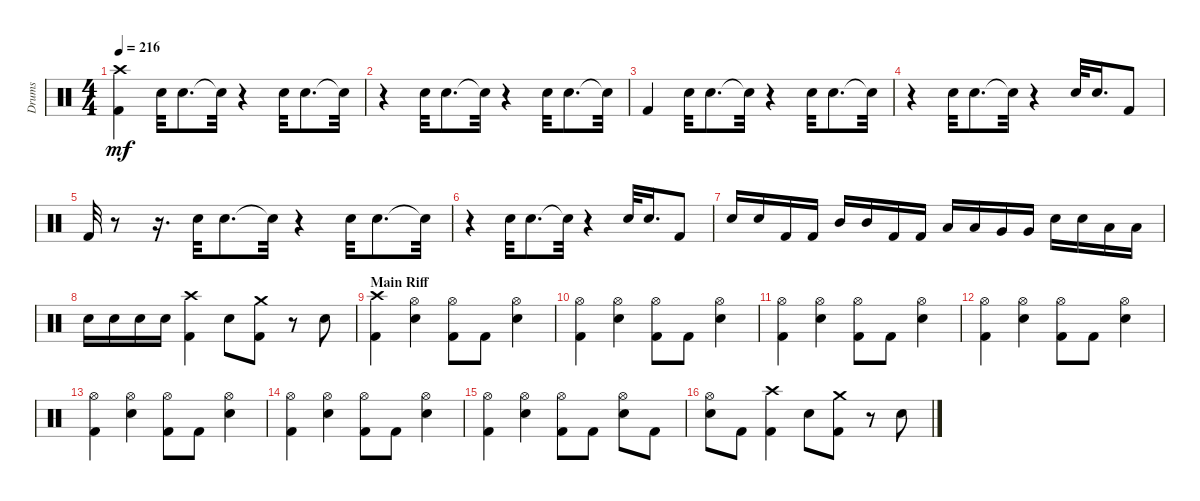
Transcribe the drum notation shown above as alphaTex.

\track ("Drums" "Drums") {instrument percussion}
\staff {score}
\articulation defaults
\ts (4 4)
\tempo 216
\clef neutral
\ks aminor
("Crash high (hit)" "Kick (hit) 2").4{dy mf} "Snare (hit) 2".32 "Snare (hit) 2".8{d} "Snare (hit) 2"{t}.32 r.4 "Snare (hit) 2".32 "Snare (hit) 2".8{d} "Snare (hit) 2"{t}.32 |
r.4 "Snare (hit) 2".32 "Snare (hit) 2".8{d} "Snare (hit) 2"{t}.32 r.4 "Snare (hit) 2".32 "Snare (hit) 2".8{d} "Snare (hit) 2"{t}.32 |
"Kick (hit) 2".4 "Snare (hit) 2".32 "Snare (hit) 2".8{d} "Snare (hit) 2"{t}.32 r.4 "Snare (hit) 2".32 "Snare (hit) 2".8{d} "Snare (hit) 2"{t}.32 |
r.4 "Snare (hit) 2".32 "Snare (hit) 2".8{d} "Snare (hit) 2"{t}.32 r.4 "Snare (hit) 2".32 "Snare (hit) 2".16{d} "Kick (hit) 2".8 |
"Kick (hit) 2".32 r.8 r.16{d} "Snare (hit) 2".32 "Snare (hit) 2".8{d} "Snare (hit) 2"{t}.32 r.4 "Snare (hit) 2".32 "Snare (hit) 2".8{d} "Snare (hit) 2"{t}.32 |
r.4 "Snare (hit) 2".32 "Snare (hit) 2".8{d} "Snare (hit) 2"{t}.32 r.4 "Snare (hit) 2".32 "Snare (hit) 2".16{d} "Kick (hit) 2".8 |
"Snare (hit) 2".16 "Snare (hit) 2".16 "Kick (hit) 2".16 "Kick (hit) 2".16 "Mid Tom (hit)".16 "Mid Tom (hit)".16 "Kick (hit) 2".16 "Kick (hit) 2".16 "Low Tom (hit)".16 "Low Tom (hit)".16 "Very Low Tom (hit)".16 "Very Low Tom (hit)".16 "Snare (hit) 2".16 "Snare (hit) 2".16 "Low Floor Tom (hit)".16 "Low Floor Tom (hit)".16 |
"Snare (hit) 2".16 "Snare (hit) 2".16 "Snare (hit) 2".16 "Snare (hit) 2".16 ("Kick (hit) 2" "Crash high (hit)").4 "Snare (hit) 2".8 ("Crash medium (hit)" "Kick (hit) 2").8 r.8 "Snare (hit) 2".8 |
\section ("" "Main Riff")
("Crash high (hit)" "Kick (hit) 2").4 ("Snare (hit) 2" "Hi-Hat (open)").4 ("Kick (hit) 2" "Hi-Hat (open)").8 "Kick (hit) 2".8 ("Hi-Hat (open)" "Snare (hit) 2").4 |
("Kick (hit) 2" "Hi-Hat (open)").4 ("Hi-Hat (open)" "Snare (hit) 2").4 ("Hi-Hat (open)" "Kick (hit) 2").8 "Kick (hit) 2".8 ("Snare (hit) 2" "Hi-Hat (open)").4 |
("Hi-Hat (open)" "Kick (hit) 2").4 ("Hi-Hat (open)" "Snare (hit) 2").4 ("Hi-Hat (open)" "Kick (hit) 2").8 "Kick (hit) 2".8 ("Hi-Hat (open)" "Snare (hit) 2").4 |
("Hi-Hat (open)" "Kick (hit) 2").4 ("Hi-Hat (open)" "Snare (hit) 2").4 ("Kick (hit) 2" "Hi-Hat (open)").8 "Kick (hit) 2".8 ("Snare (hit) 2" "Hi-Hat (open)").4 |
("Hi-Hat (open)" "Kick (hit) 2").4 ("Hi-Hat (open)" "Snare (hit) 2").4 ("Kick (hit) 2" "Hi-Hat (open)").8 "Kick (hit) 2".8 ("Snare (hit) 2" "Hi-Hat (open)").4 |
("Kick (hit) 2" "Hi-Hat (open)").4 ("Hi-Hat (open)" "Snare (hit) 2").4 ("Hi-Hat (open)" "Kick (hit) 2").8 "Kick (hit) 2".8 ("Snare (hit) 2" "Hi-Hat (open)").4 |
("Kick (hit) 2" "Hi-Hat (open)").4 ("Hi-Hat (open)" "Snare (hit) 2").4 ("Hi-Hat (open)" "Kick (hit) 2").8 "Kick (hit) 2".8 ("Hi-Hat (open)" "Snare (hit) 2").8 "Kick (hit) 2".8 |
("Snare (hit) 2" "Hi-Hat (open)").8 "Kick (hit) 2".8 ("Crash high (hit)" "Kick (hit) 2").4 "Snare (hit) 2".8 ("Kick (hit) 2" "Crash medium (hit)").8 r.8 "Snare (hit) 2".8
